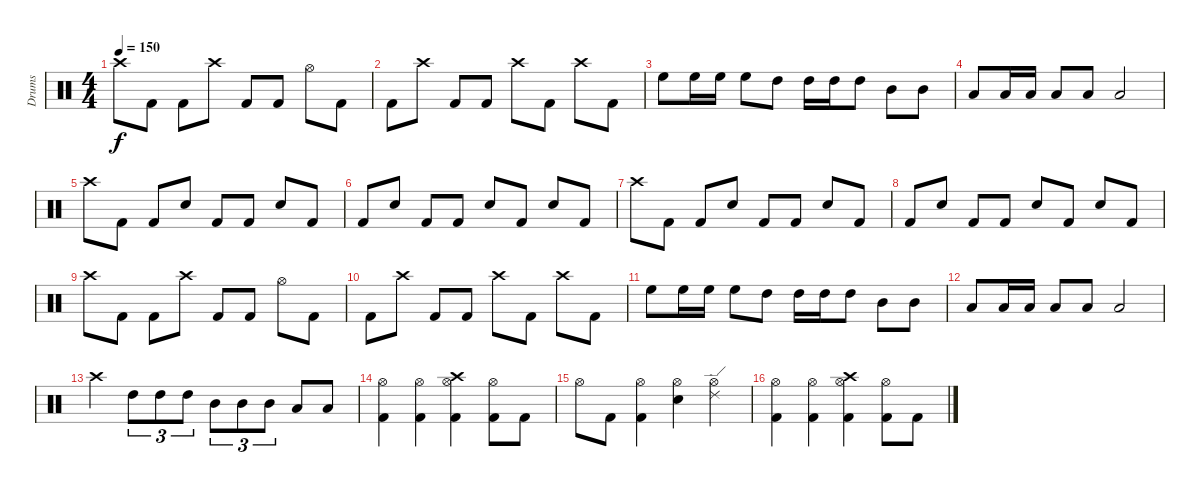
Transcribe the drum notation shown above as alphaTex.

\track ("Drums" "Drums") {instrument percussion}
\staff {score}
\articulation defaults
\ts (4 4)
\tempo 150
\clef neutral
\ks c "Crash high (hit)".8{dy f} "Kick (hit) 2".8 "Kick (hit) 2".8 "Crash high (hit)".8 "Kick (hit) 2".8 "Kick (hit) 2".8 "Hi-Hat (open)".8 "Kick (hit) 2".8
|
"Kick (hit) 2".8 "Crash high (hit)".8 "Kick (hit) 2".8 "Kick (hit) 2".8 "Crash high (hit)".8 "Kick (hit) 2".8 "Crash high (hit)".8 "Kick (hit) 2".8 |
"High Floor Tom (hit)".8 "High Floor Tom (hit)".16 "High Floor Tom (hit)".16 "High Floor Tom (hit)".8 "High Tom (hit)".8 "High Tom (hit)".16 "High Tom (hit)".16 "High Tom (hit)".8 "Mid Tom (hit)".8 "Mid Tom (hit)".8 |
"Low Tom (hit)".8 "Low Tom (hit)".16 "Low Tom (hit)".16 "Low Tom (hit)".8 "Low Tom (hit)".8 "Low Tom (hit)".2 |
"Crash high (hit)".8 "Kick (hit) 2".8 "Kick (hit) 2".8 "Snare (hit) 2".8 "Kick (hit) 2".8 "Kick (hit) 2".8 "Snare (hit) 2".8 "Kick (hit) 2".8 |
"Kick (hit) 2".8 "Snare (hit) 2".8 "Kick (hit) 2".8 "Kick (hit) 2".8 "Snare (hit) 2".8 "Kick (hit) 2".8 "Snare (hit) 2".8 "Kick (hit) 2".8 |
"Crash high (hit)".8 "Kick (hit) 2".8 "Kick (hit) 2".8 "Snare (hit) 2".8 "Kick (hit) 2".8 "Kick (hit) 2".8 "Snare (hit) 2".8 "Kick (hit) 2".8 |
"Kick (hit) 2".8 "Snare (hit) 2".8 "Kick (hit) 2".8 "Kick (hit) 2".8 "Snare (hit) 2".8 "Kick (hit) 2".8 "Snare (hit) 2".8 "Kick (hit) 2".8 |
"Crash high (hit)".8 "Kick (hit) 2".8 "Kick (hit) 2".8 "Crash high (hit)".8 "Kick (hit) 2".8 "Kick (hit) 2".8 "Hi-Hat (open)".8 "Kick (hit) 2".8 |
"Kick (hit) 2".8 "Crash high (hit)".8 "Kick (hit) 2".8 "Kick (hit) 2".8 "Crash high (hit)".8 "Kick (hit) 2".8 "Crash high (hit)".8 "Kick (hit) 2".8 |
"High Floor Tom (hit)".8 "High Floor Tom (hit)".16 "High Floor Tom (hit)".16 "High Floor Tom (hit)".8 "High Tom (hit)".8 "High Tom (hit)".16 "High Tom (hit)".16 "High Tom (hit)".8 "Mid Tom (hit)".8 "Mid Tom (hit)".8 |
"Low Tom (hit)".8 "Low Tom (hit)".16 "Low Tom (hit)".16 "Low Tom (hit)".8 "Low Tom (hit)".8 "Low Tom (hit)".2 |
"Crash high (hit)".4 "High Tom (hit)".8{tu (3 2)} "High Tom (hit)".8{tu (3 2)} "High Tom (hit)".8{tu (3 2)} "Mid Tom (hit)".8{tu (3 2)} "Mid Tom (hit)".8{tu (3 2)} "Mid Tom (hit)".8{tu (3 2)} "Low Tom (hit)".8 "Low Tom (hit)".8 |
("Hi-Hat (open)" "Kick (hit) 2").4 ("Hi-Hat (open)" "Kick (hit) 2").4 ("Crash high (hit)" "Hi-Hat (open)" "Kick (hit) 2").4 ("Hi-Hat (open)" "Kick (hit) 2").8 "Kick (hit) 2".8 |
"Hi-Hat (open)".8 "Kick (hit) 2".8 ("Hi-Hat (open)" "Kick (hit) 2").4 ("Hi-Hat (open)" "Snare (hit) 2").4 ("Ride (edge) 2" "Hi-Hat (open)").4 |
("Hi-Hat (open)" "Kick (hit) 2").4 ("Hi-Hat (open)" "Kick (hit) 2").4 ("Crash high (hit)" "Hi-Hat (open)" "Kick (hit) 2").4 ("Hi-Hat (open)" "Kick (hit) 2").8 "Kick (hit) 2".8
